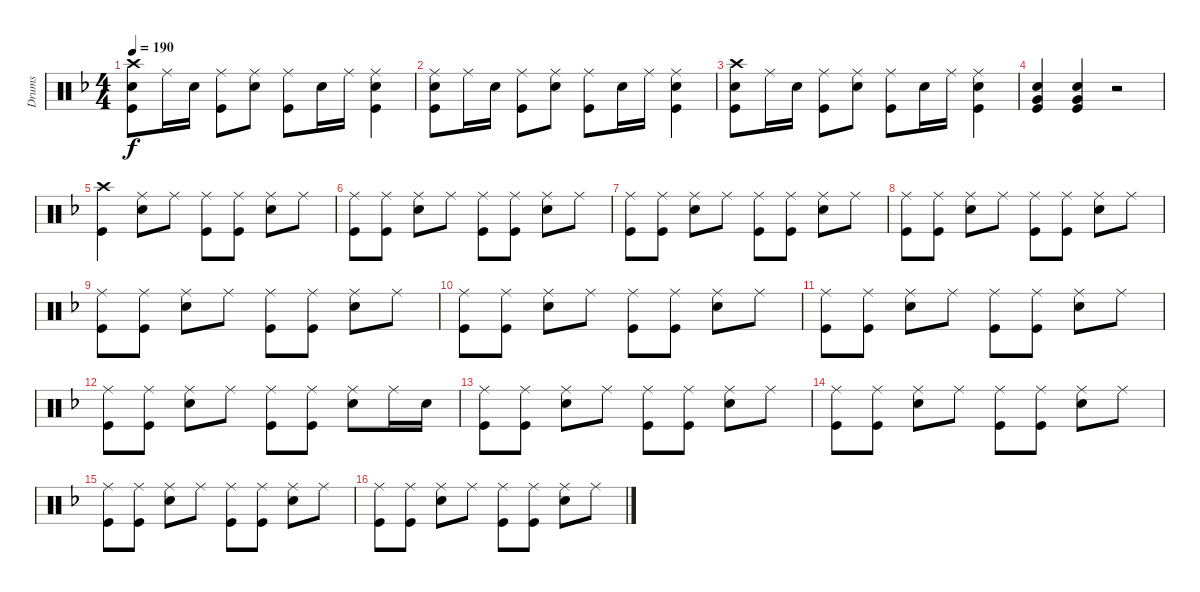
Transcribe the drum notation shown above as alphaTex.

\track ("Drums" "Drums") {instrument percussion}
\staff {score}
\articulation defaults
\ts (4 4)
\tempo 190
\clef neutral
\ks f
("Snare (hit) 2" "Kick (hit)" "Crash high (hit)").8{dy f} "Ride (middle)".16 "Snare (hit) 2".16 ("Kick (hit)" "Ride (middle)").8 ("Ride (middle)" "Snare (hit) 2").8 ("Kick (hit)" "Ride (middle)").8 "Snare (hit) 2".16 "Ride (middle)".16 ("Snare (hit) 2" "Kick (hit)" "Ride (middle)").4 |
("Snare (hit) 2" "Kick (hit)" "Ride (middle)").8 "Ride (middle)".16 "Snare (hit) 2".16 ("Kick (hit)" "Ride (middle)").8 ("Ride (middle)" "Snare (hit) 2").8 ("Kick (hit)" "Ride (middle)").8 "Snare (hit) 2".16 "Ride (middle)".16 ("Snare (hit) 2" "Kick (hit)" "Ride (middle)").4 |
("Snare (hit) 2" "Kick (hit)" "Crash high (hit)").8 "Ride (middle)".16 "Snare (hit) 2".16 ("Kick (hit)" "Ride (middle)").8 ("Ride (middle)" "Snare (hit) 2").8 ("Kick (hit)" "Ride (middle)").8 "Snare (hit) 2".16 "Ride (middle)".16 ("Snare (hit) 2" "Kick (hit)" "Ride (middle)").4 |
("Snare (hit) 2" "Kick (hit)" "Very Low Tom (hit)").4 ("Snare (hit) 2" "Kick (hit)" "Very Low Tom (hit)").4 r.2 |
("Kick (hit)" "Crash high (hit)").4 ("Snare (hit) 2" "Ride (middle)").8 "Ride (middle)".8 ("Ride (middle)" "Kick (hit)").8 ("Ride (middle)" "Kick (hit)").8 ("Snare (hit) 2" "Ride (middle)").8 "Ride (middle)".8 |
("Kick (hit)" "Ride (middle)").8 ("Ride (middle)" "Kick (hit)").8 ("Snare (hit) 2" "Ride (middle)").8 "Ride (middle)".8 ("Ride (middle)" "Kick (hit)").8 ("Ride (middle)" "Kick (hit)").8 ("Ride (middle)" "Snare (hit) 2").8 "Ride (middle)".8 |
("Kick (hit)" "Ride (middle)").8 ("Ride (middle)" "Kick (hit)").8 ("Snare (hit) 2" "Ride (middle)").8 "Ride (middle)".8 ("Ride (middle)" "Kick (hit)").8 ("Ride (middle)" "Kick (hit)").8 ("Ride (middle)" "Snare (hit) 2").8 "Ride (middle)".8 |
("Kick (hit)" "Ride (middle)").8 ("Ride (middle)" "Kick (hit)").8 ("Snare (hit) 2" "Ride (middle)").8 "Ride (middle)".8 ("Ride (middle)" "Kick (hit)").8 ("Ride (middle)" "Kick (hit)").8 ("Ride (middle)" "Snare (hit) 2").8 "Ride (middle)".8 |
("Kick (hit)" "Ride (middle)").8 ("Ride (middle)" "Kick (hit)").8 ("Snare (hit) 2" "Ride (middle)").8 "Ride (middle)".8 ("Ride (middle)" "Kick (hit)").8 ("Ride (middle)" "Kick (hit)").8 ("Ride (middle)" "Snare (hit) 2").8 "Ride (middle)".8 |
("Kick (hit)" "Ride (middle)").8 ("Ride (middle)" "Kick (hit)").8 ("Snare (hit) 2" "Ride (middle)").8 "Ride (middle)".8 ("Ride (middle)" "Kick (hit)").8 ("Ride (middle)" "Kick (hit)").8 ("Ride (middle)" "Snare (hit) 2").8 "Ride (middle)".8 |
("Kick (hit)" "Ride (middle)").8 ("Ride (middle)" "Kick (hit)").8 ("Snare (hit) 2" "Ride (middle)").8 "Ride (middle)".8 ("Ride (middle)" "Kick (hit)").8 ("Ride (middle)" "Kick (hit)").8 ("Ride (middle)" "Snare (hit) 2").8 "Ride (middle)".8 |
("Kick (hit)" "Ride (middle)").8 ("Ride (middle)" "Kick (hit)").8 ("Snare (hit) 2" "Ride (middle)").8 "Ride (middle)".8 ("Ride (middle)" "Kick (hit)").8 ("Ride (middle)" "Kick (hit)").8 ("Ride (middle)" "Snare (hit) 2").8 "Ride (middle)".16 "Snare (hit) 2".16 |
("Kick (hit)" "Ride (middle)").8 ("Ride (middle)" "Kick (hit)").8 ("Snare (hit) 2" "Ride (middle)").8 "Ride (middle)".8 ("Ride (middle)" "Kick (hit)").8 ("Ride (middle)" "Kick (hit)").8 ("Ride (middle)" "Snare (hit) 2").8 "Ride (middle)".8 |
("Kick (hit)" "Ride (middle)").8 ("Ride (middle)" "Kick (hit)").8 ("Snare (hit) 2" "Ride (middle)").8 "Ride (middle)".8 ("Ride (middle)" "Kick (hit)").8 ("Ride (middle)" "Kick (hit)").8 ("Ride (middle)" "Snare (hit) 2").8 "Ride (middle)".8 |
("Kick (hit)" "Ride (middle)").8 ("Ride (middle)" "Kick (hit)").8 ("Snare (hit) 2" "Ride (middle)").8 "Ride (middle)".8 ("Ride (middle)" "Kick (hit)").8 ("Ride (middle)" "Kick (hit)").8 ("Ride (middle)" "Snare (hit) 2").8 "Ride (middle)".8 |
("Kick (hit)" "Ride (middle)").8 ("Ride (middle)" "Kick (hit)").8 ("Snare (hit) 2" "Ride (middle)").8 "Ride (middle)".8 ("Ride (middle)" "Kick (hit)").8 ("Ride (middle)" "Kick (hit)").8 ("Ride (middle)" "Snare (hit) 2").8 "Ride (middle)".8
